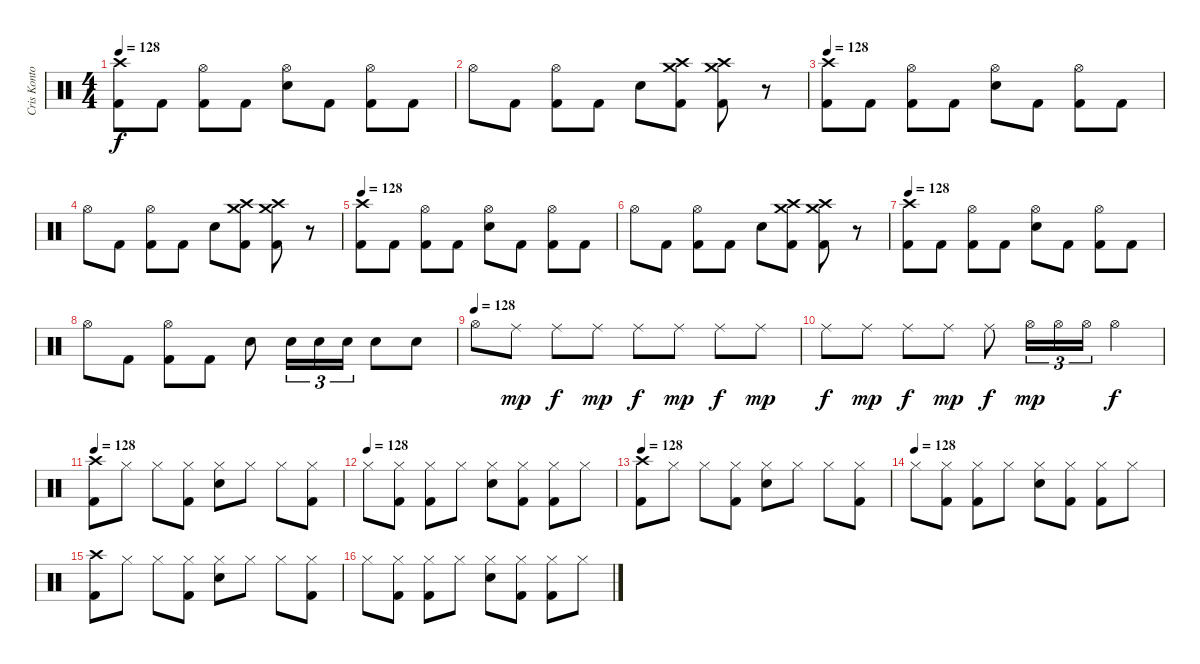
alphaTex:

\track ("Cris Kontos" "Cris Konto") {instrument percussion}
\staff {score}
\articulation defaults
\ts (4 4)
\tempo 128
\clef neutral
\ks c
("Crash high (hit)" "Kick (hit) 2").8{dy f} "Kick (hit) 2".8 ("Hi-Hat (open)" "Kick (hit) 2").8 "Kick (hit) 2".8 ("Hi-Hat (open)" "Electric Snare (hit)").8 "Kick (hit) 2".8 ("Hi-Hat (open)" "Kick (hit) 2").8 "Kick (hit) 2".8 |
"Hi-Hat (open)".8 "Kick (hit) 2".8 ("Hi-Hat (open)" "Kick (hit) 2").8 "Kick (hit) 2".8 "Electric Snare (hit)".8 ("Crash high (hit)" "Crash medium (hit)" "Kick (hit) 2").8 ("Crash high (hit)" "Crash medium (hit)" "Kick (hit) 2").8 r.8 |
\tempo 128
("Crash high (hit)" "Kick (hit) 2").8 "Kick (hit) 2".8 ("Hi-Hat (open)" "Kick (hit) 2").8 "Kick (hit) 2".8 ("Hi-Hat (open)" "Electric Snare (hit)").8 "Kick (hit) 2".8 ("Hi-Hat (open)" "Kick (hit) 2").8 "Kick (hit) 2".8 |
"Hi-Hat (open)".8 "Kick (hit) 2".8 ("Hi-Hat (open)" "Kick (hit) 2").8 "Kick (hit) 2".8 "Electric Snare (hit)".8 ("Crash high (hit)" "Crash medium (hit)" "Kick (hit) 2").8 ("Crash high (hit)" "Crash medium (hit)" "Kick (hit) 2").8 r.8 |
\tempo 128
("Crash high (hit)" "Kick (hit) 2").8 "Kick (hit) 2".8 ("Hi-Hat (open)" "Kick (hit) 2").8 "Kick (hit) 2".8 ("Hi-Hat (open)" "Electric Snare (hit)").8 "Kick (hit) 2".8 ("Hi-Hat (open)" "Kick (hit) 2").8 "Kick (hit) 2".8 |
"Hi-Hat (open)".8 "Kick (hit) 2".8 ("Hi-Hat (open)" "Kick (hit) 2").8 "Kick (hit) 2".8 "Electric Snare (hit)".8 ("Crash high (hit)" "Crash medium (hit)" "Kick (hit) 2").8 ("Crash high (hit)" "Crash medium (hit)" "Kick (hit) 2").8 r.8 |
\tempo 128
("Crash high (hit)" "Kick (hit) 2").8 "Kick (hit) 2".8 ("Hi-Hat (open)" "Kick (hit) 2").8 "Kick (hit) 2".8 ("Hi-Hat (open)" "Electric Snare (hit)").8 "Kick (hit) 2".8 ("Hi-Hat (open)" "Kick (hit) 2").8 "Kick (hit) 2".8 |
"Hi-Hat (open)".8 "Kick (hit) 2".8 ("Hi-Hat (open)" "Kick (hit) 2").8 "Kick (hit) 2".8 "Electric Snare (hit)".8 "Electric Snare (hit)".16{tu (3 2)} "Electric Snare (hit)".16{tu (3 2)} "Electric Snare (hit)".16{tu (3 2)} "Electric Snare (hit)".8 "Electric Snare (hit)".8 |
\tempo (128)
"Hi-Hat (open)".8 "Ride (middle)".8{dy mp} "Ride (middle)".8{dy f} "Ride (middle)".8{dy mp} "Ride (middle)".8{dy f} "Ride (middle)".8{dy mp} "Ride (middle)".8{dy f} "Ride (middle)".8{dy mp} |
"Ride (middle)".8{dy f} "Ride (middle)".8{dy mp} "Ride (middle)".8{dy f} "Ride (middle)".8{dy mp} "Ride (middle)".8{dy f} "Hi-Hat (open)".16{tu (3 2) dy mp} "Hi-Hat (open)".16{tu (3 2)} "Hi-Hat (open)".16{tu (3 2)} "Hi-Hat (open)".4{dy f} |
\tempo 128
("Crash high (hit)" "Kick (hit) 2").8 "Hi-Hat (closed)".8 "Hi-Hat (closed)".8 ("Hi-Hat (closed)" "Kick (hit) 2").8 ("Hi-Hat (closed)" "Electric Snare (hit)").8 "Hi-Hat (closed)".8 "Hi-Hat (closed)".8 ("Hi-Hat (closed)" "Kick (hit) 2").8 |
\tempo (128)
"Hi-Hat (closed)".8 ("Hi-Hat (closed)" "Kick (hit) 2").8 ("Hi-Hat (closed)" "Kick (hit) 2").8 "Hi-Hat (closed)".8 ("Hi-Hat (closed)" "Electric Snare (hit)").8 ("Hi-Hat (closed)" "Kick (hit) 2").8 ("Hi-Hat (closed)" "Kick (hit) 2").8 "Hi-Hat (closed)".8 |
\tempo 128
("Crash high (hit)" "Kick (hit) 2").8 "Hi-Hat (closed)".8 "Hi-Hat (closed)".8 ("Hi-Hat (closed)" "Kick (hit) 2").8 ("Hi-Hat (closed)" "Electric Snare (hit)").8 "Hi-Hat (closed)".8 "Hi-Hat (closed)".8 ("Hi-Hat (closed)" "Kick (hit) 2").8 |
\tempo (128)
"Hi-Hat (closed)".8 ("Hi-Hat (closed)" "Kick (hit) 2").8 ("Hi-Hat (closed)" "Kick (hit) 2").8 "Hi-Hat (closed)".8 ("Hi-Hat (closed)" "Electric Snare (hit)").8 ("Hi-Hat (closed)" "Kick (hit) 2").8 ("Hi-Hat (closed)" "Kick (hit) 2").8 "Hi-Hat (closed)".8 |
("Crash high (hit)" "Kick (hit) 2").8 "Hi-Hat (closed)".8 "Hi-Hat (closed)".8 ("Hi-Hat (closed)" "Kick (hit) 2").8 ("Hi-Hat (closed)" "Electric Snare (hit)").8 "Hi-Hat (closed)".8 "Hi-Hat (closed)".8 ("Hi-Hat (closed)" "Kick (hit) 2").8 |
"Hi-Hat (closed)".8 ("Hi-Hat (closed)" "Kick (hit) 2").8 ("Hi-Hat (closed)" "Kick (hit) 2").8 "Hi-Hat (closed)".8 ("Hi-Hat (closed)" "Electric Snare (hit)").8 ("Hi-Hat (closed)" "Kick (hit) 2").8 ("Hi-Hat (closed)" "Kick (hit) 2").8 "Hi-Hat (closed)".8
